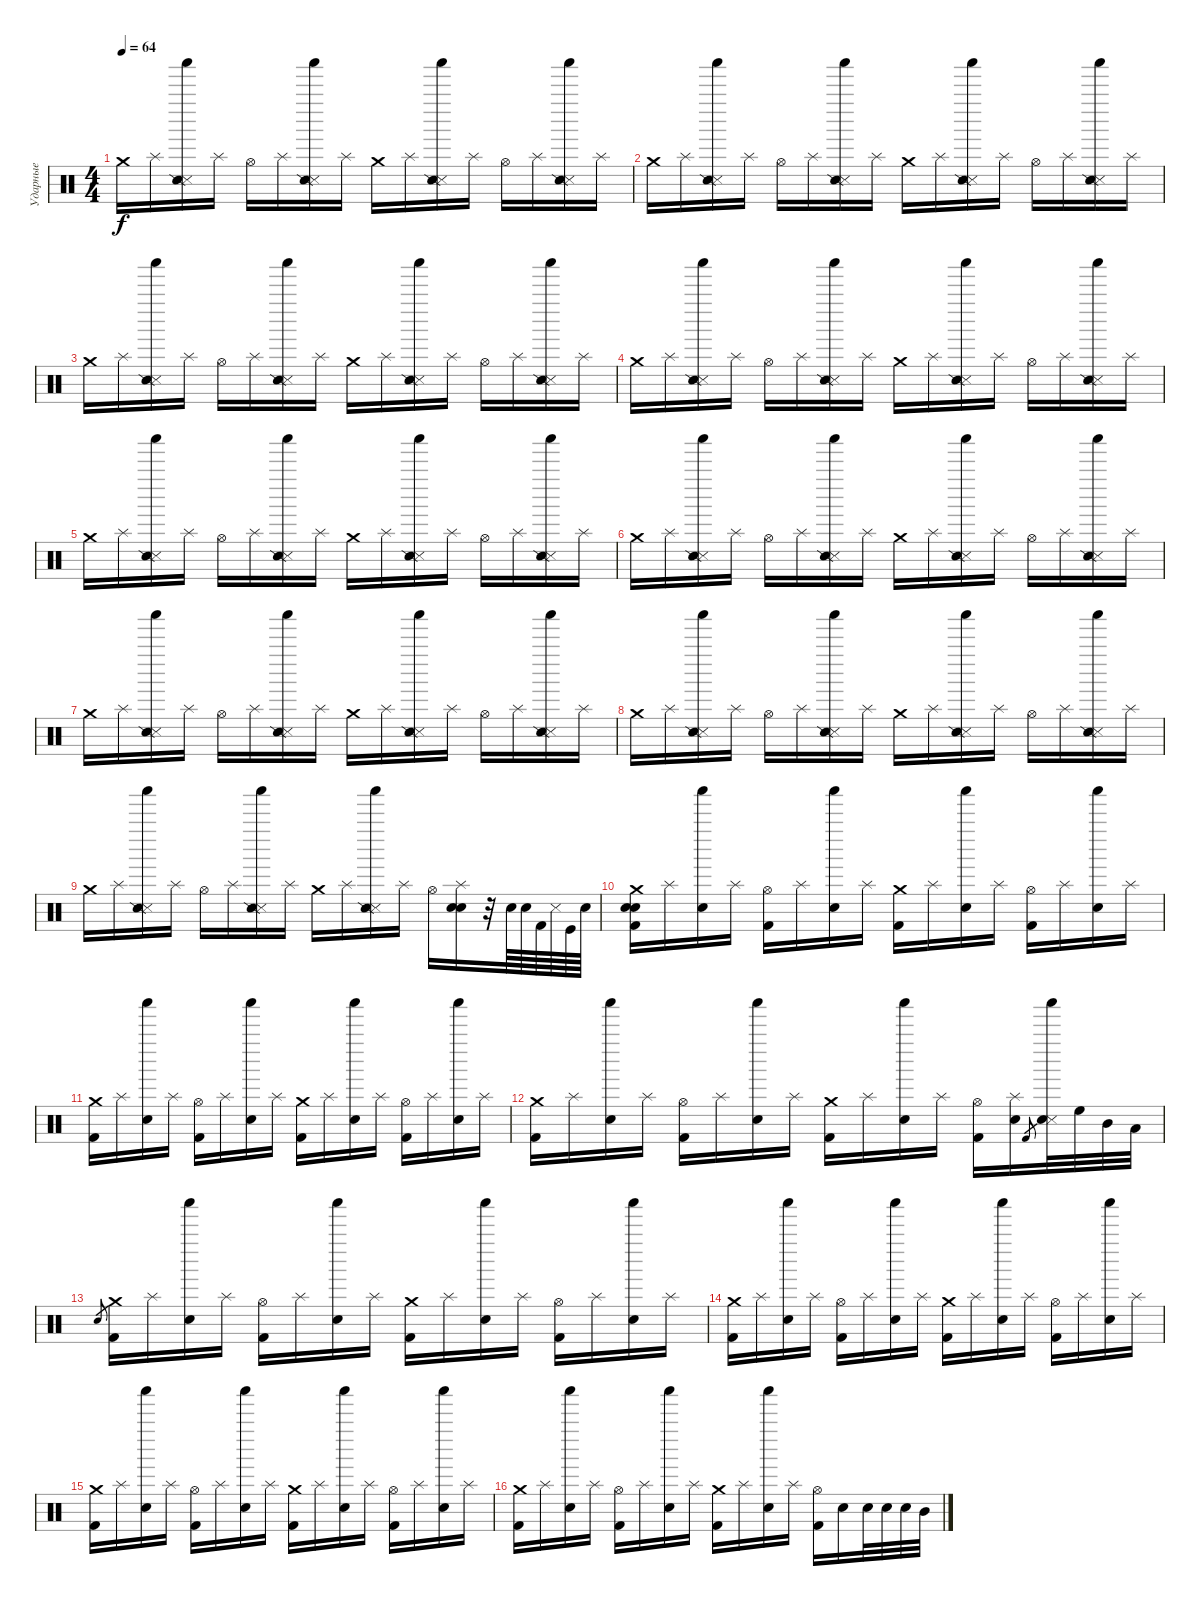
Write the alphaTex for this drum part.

\track ("Ударные" "Ударные") {instrument percussion}
\staff {score}
\articulation defaults
\ts (4 4)
\tempo 64
\clef neutral
\ks c "Crash medium (hit)".16{dy f} "Splash (hit)".16
("Snare (side stick) 3" "Shaker (hit)" "Snare (side stick) 2").16 "Splash (hit)".16 "Hi-Hat (open)".16 "Splash (hit)".16 ("Snare (side stick) 3" "Shaker (hit)" "Snare (side stick) 2").16 "Splash (hit)".16 "Crash medium (hit)".16 "Splash (hit)".16 ("Snare (side stick) 3" "Shaker (hit)" "Snare (side stick) 2").16 "Splash (hit)".16 "Hi-Hat (open)".16 "Splash (hit)".16 ("Snare (side stick) 3" "Shaker (hit)" "Snare (side stick) 2").16 "Splash (hit)".16 |
"Crash medium (hit)".16 "Splash (hit)".16 ("Snare (side stick) 3" "Shaker (hit)" "Snare (side stick) 2").16 "Splash (hit)".16 "Hi-Hat (open)".16 "Splash (hit)".16 ("Snare (side stick) 3" "Shaker (hit)" "Snare (side stick) 2").16 "Splash (hit)".16 "Crash medium (hit)".16 "Splash (hit)".16 ("Snare (side stick) 3" "Shaker (hit)" "Snare (side stick) 2").16 "Splash (hit)".16 "Hi-Hat (open)".16 "Splash (hit)".16 ("Snare (side stick) 3" "Shaker (hit)" "Snare (side stick) 2").16 "Splash (hit)".16 |
"Crash medium (hit)".16 "Splash (hit)".16 ("Snare (side stick) 3" "Shaker (hit)" "Snare (side stick) 2").16 "Splash (hit)".16 "Hi-Hat (open)".16 "Splash (hit)".16 ("Snare (side stick) 3" "Shaker (hit)" "Snare (side stick) 2").16 "Splash (hit)".16 "Crash medium (hit)".16 "Splash (hit)".16 ("Snare (side stick) 3" "Shaker (hit)" "Snare (side stick) 2").16 "Splash (hit)".16 "Hi-Hat (open)".16 "Splash (hit)".16 ("Snare (side stick) 3" "Shaker (hit)" "Snare (side stick) 2").16 "Splash (hit)".16 |
"Crash medium (hit)".16 "Splash (hit)".16 ("Snare (side stick) 3" "Shaker (hit)" "Snare (side stick) 2").16 "Splash (hit)".16 "Hi-Hat (open)".16 "Splash (hit)".16 ("Snare (side stick) 3" "Shaker (hit)" "Snare (side stick) 2").16 "Splash (hit)".16 "Crash medium (hit)".16 "Splash (hit)".16 ("Snare (side stick) 3" "Shaker (hit)" "Snare (side stick) 2").16 "Splash (hit)".16 "Hi-Hat (open)".16 "Splash (hit)".16 ("Snare (side stick) 3" "Shaker (hit)" "Snare (side stick) 2").16 "Splash (hit)".16 |
"Crash medium (hit)".16 "Splash (hit)".16 ("Snare (side stick) 3" "Shaker (hit)" "Snare (side stick) 2").16 "Splash (hit)".16 "Hi-Hat (open)".16 "Splash (hit)".16 ("Snare (side stick) 3" "Shaker (hit)" "Snare (side stick) 2").16 "Splash (hit)".16 "Crash medium (hit)".16 "Splash (hit)".16 ("Snare (side stick) 3" "Shaker (hit)" "Snare (side stick) 2").16 "Splash (hit)".16 "Hi-Hat (open)".16 "Splash (hit)".16 ("Snare (side stick) 3" "Shaker (hit)" "Snare (side stick) 2").16 "Splash (hit)".16 |
"Crash medium (hit)".16 "Splash (hit)".16 ("Snare (side stick) 3" "Shaker (hit)" "Snare (side stick) 2").16 "Splash (hit)".16 "Hi-Hat (open)".16 "Splash (hit)".16 ("Snare (side stick) 3" "Shaker (hit)" "Snare (side stick) 2").16 "Splash (hit)".16 "Crash medium (hit)".16 "Splash (hit)".16 ("Snare (side stick) 3" "Shaker (hit)" "Snare (side stick) 2").16 "Splash (hit)".16 "Hi-Hat (open)".16 "Splash (hit)".16 ("Snare (side stick) 3" "Shaker (hit)" "Snare (side stick) 2").16 "Splash (hit)".16 |
"Crash medium (hit)".16 "Splash (hit)".16 ("Snare (side stick) 3" "Shaker (hit)" "Snare (side stick) 2").16 "Splash (hit)".16 "Hi-Hat (open)".16 "Splash (hit)".16 ("Snare (side stick) 3" "Shaker (hit)" "Snare (side stick) 2").16 "Splash (hit)".16 "Crash medium (hit)".16 "Splash (hit)".16 ("Snare (side stick) 3" "Shaker (hit)" "Snare (side stick) 2").16 "Splash (hit)".16 "Hi-Hat (open)".16 "Splash (hit)".16 ("Snare (side stick) 3" "Shaker (hit)" "Snare (side stick) 2").16 "Splash (hit)".16 |
"Crash medium (hit)".16 "Splash (hit)".16 ("Snare (side stick) 3" "Shaker (hit)" "Snare (side stick) 2").16 "Splash (hit)".16 "Hi-Hat (open)".16 "Splash (hit)".16 ("Snare (side stick) 3" "Shaker (hit)" "Snare (side stick) 2").16 "Splash (hit)".16 "Crash medium (hit)".16 "Splash (hit)".16 ("Snare (side stick) 3" "Shaker (hit)" "Snare (side stick) 2").16 "Splash (hit)".16 "Hi-Hat (open)".16 "Splash (hit)".16 ("Snare (side stick) 3" "Shaker (hit)" "Snare (side stick) 2").16 "Splash (hit)".16 |
"Crash medium (hit)".16 "Splash (hit)".16 ("Snare (side stick) 3" "Shaker (hit)" "Snare (side stick) 2").16 "Splash (hit)".16 "Hi-Hat (open)".16 "Splash (hit)".16 ("Snare (side stick) 3" "Shaker (hit)" "Snare (side stick) 2").16 "Splash (hit)".16 "Crash medium (hit)".16 "Splash (hit)".16 ("Snare (side stick) 3" "Shaker (hit)" "Snare (side stick) 2").16 "Splash (hit)".16 "Hi-Hat (open)".16 ("Splash (hit)" "Electric Snare (hit)" "Snare (hit) 2").16 r.32 "Electric Snare (hit)".64 "Snare (hit) 2".64 "Kick (hit) 2".64 "Snare (side stick) 3".64 "Kick (hit)".64 "Snare (hit) 2".64 |
("Crash medium (hit)" "Kick (hit) 2" "Snare (hit) 2" "Electric Snare (hit)").16 "Splash (hit)".16 ("Snare (hit) 2" "Shaker (hit)").16 "Splash (hit)".16 ("Hi-Hat (open)" "Kick (hit) 2").16 "Splash (hit)".16 ("Snare (hit) 2" "Shaker (hit)").16 "Splash (hit)".16 ("Crash medium (hit)" "Kick (hit) 2").16 "Splash (hit)".16 ("Snare (hit) 2" "Shaker (hit)").16 "Splash (hit)".16 ("Hi-Hat (open)" "Kick (hit) 2").16 "Splash (hit)".16 ("Snare (hit) 2" "Shaker (hit)").16 "Splash (hit)".16 |
("Crash medium (hit)" "Kick (hit) 2").16 "Splash (hit)".16 ("Snare (hit) 2" "Shaker (hit)").16 "Splash (hit)".16 ("Hi-Hat (open)" "Kick (hit) 2").16 "Splash (hit)".16 ("Snare (hit) 2" "Shaker (hit)").16 "Splash (hit)".16 ("Crash medium (hit)" "Kick (hit) 2").16 "Splash (hit)".16 ("Snare (hit) 2" "Shaker (hit)").16 "Splash (hit)".16 ("Hi-Hat (open)" "Kick (hit) 2").16 "Splash (hit)".16 ("Snare (hit) 2" "Shaker (hit)").16 "Splash (hit)".16 |
("Crash medium (hit)" "Kick (hit) 2").16 "Splash (hit)".16 ("Snare (hit) 2" "Shaker (hit)").16 "Splash (hit)".16 ("Hi-Hat (open)" "Kick (hit) 2").16 "Splash (hit)".16 ("Snare (hit) 2" "Shaker (hit)").16 "Splash (hit)".16 ("Crash medium (hit)" "Kick (hit) 2").16 "Splash (hit)".16 ("Snare (hit) 2" "Shaker (hit)").16 "Splash (hit)".16 ("Hi-Hat (open)" "Kick (hit) 2").16 ("Splash (hit)" "Snare (hit) 2").16 "Kick (hit) 2".8{gr} ("Snare (side stick) 3" "Shaker (hit)" "Snare (hit) 2").32 "High Floor Tom (hit)".32 "Mid Tom (hit)".32 "Low Tom (hit)".32 |
"Snare (hit) 2".8{gr} ("Crash medium (hit)" "Kick (hit) 2").16 "Splash (hit)".16 ("Snare (hit) 2" "Shaker (hit)").16 "Splash (hit)".16 ("Hi-Hat (open)" "Kick (hit) 2").16 "Splash (hit)".16 ("Snare (hit) 2" "Shaker (hit)").16 "Splash (hit)".16 ("Crash medium (hit)" "Kick (hit) 2").16 "Splash (hit)".16 ("Snare (hit) 2" "Shaker (hit)").16 "Splash (hit)".16 ("Hi-Hat (open)" "Kick (hit) 2").16 "Splash (hit)".16 ("Snare (hit) 2" "Shaker (hit)").16 "Splash (hit)".16 |
("Crash medium (hit)" "Kick (hit) 2").16 "Splash (hit)".16 ("Snare (hit) 2" "Shaker (hit)").16 "Splash (hit)".16 ("Hi-Hat (open)" "Kick (hit) 2").16 "Splash (hit)".16 ("Snare (hit) 2" "Shaker (hit)").16 "Splash (hit)".16 ("Crash medium (hit)" "Kick (hit) 2").16 "Splash (hit)".16 ("Snare (hit) 2" "Shaker (hit)").16 "Splash (hit)".16 ("Hi-Hat (open)" "Kick (hit) 2").16 "Splash (hit)".16 ("Snare (hit) 2" "Shaker (hit)").16 "Splash (hit)".16 |
("Crash medium (hit)" "Kick (hit) 2").16 "Splash (hit)".16 ("Snare (hit) 2" "Shaker (hit)").16 "Splash (hit)".16 ("Hi-Hat (open)" "Kick (hit) 2").16 "Splash (hit)".16 ("Snare (hit) 2" "Shaker (hit)").16 "Splash (hit)".16 ("Crash medium (hit)" "Kick (hit) 2").16 "Splash (hit)".16 ("Snare (hit) 2" "Shaker (hit)").16 "Splash (hit)".16 ("Hi-Hat (open)" "Kick (hit) 2").16 "Splash (hit)".16 ("Snare (hit) 2" "Shaker (hit)").16 "Splash (hit)".16 |
("Crash medium (hit)" "Kick (hit) 2").16 "Splash (hit)".16 ("Snare (hit) 2" "Shaker (hit)").16 "Splash (hit)".16 ("Hi-Hat (open)" "Kick (hit) 2").16 "Splash (hit)".16 ("Snare (hit) 2" "Shaker (hit)").16 "Splash (hit)".16 ("Crash medium (hit)" "Kick (hit) 2").16 "Splash (hit)".16 ("Snare (hit) 2" "Shaker (hit)").16 "Splash (hit)".16 ("Hi-Hat (open)" "Kick (hit) 2").16 "Electric Snare (hit)".16 "Snare (hit) 2".32 "Snare (hit) 2".32 "Electric Snare (hit)".32 "Mid Tom (hit)".32
